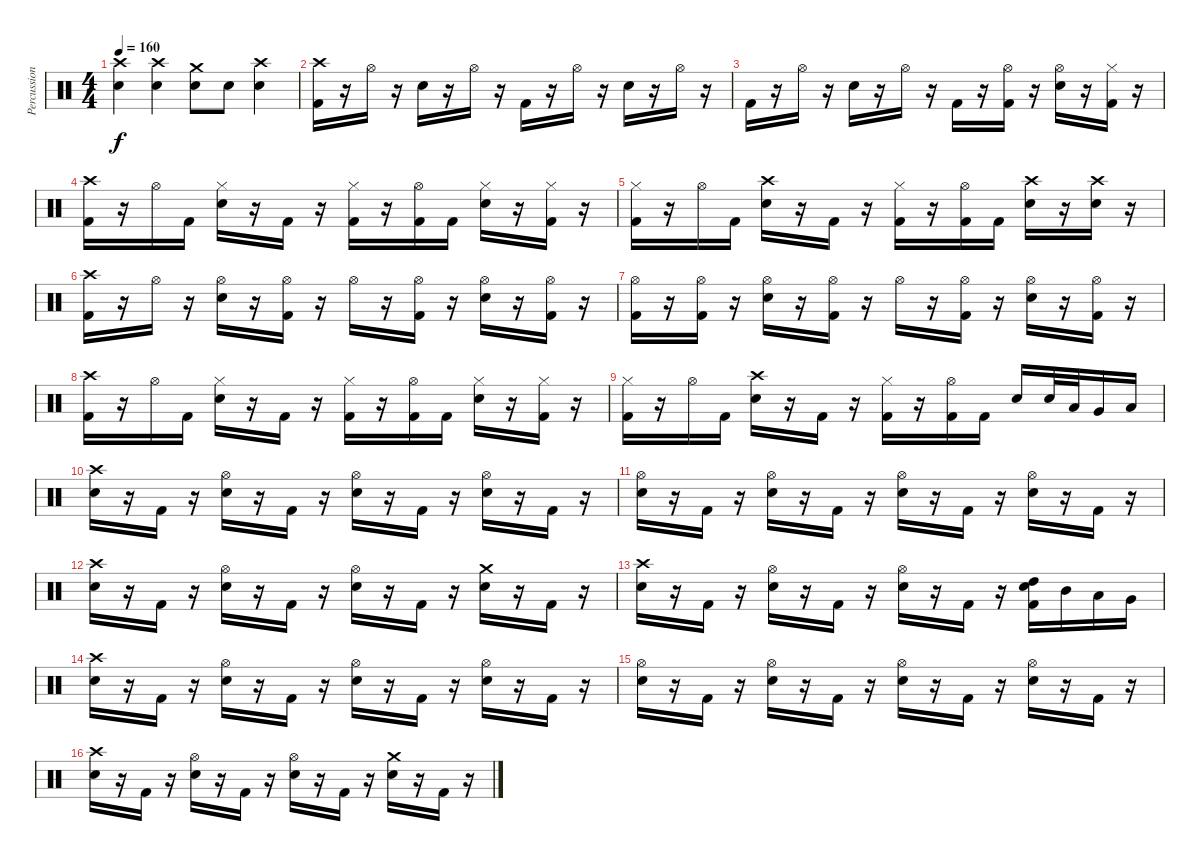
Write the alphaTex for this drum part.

\track ("Percussion" "Percussion") {instrument percussion}
\staff {score}
\articulation defaults
\ts (4 4)
\tempo 160
\clef neutral
\ks c
("Crash high (hit)" "Snare (hit) 2").4{dy f} ("Crash high (hit)" "Snare (hit) 2").4 ("Crash medium (hit)" "Snare (hit) 2").8 "Snare (hit) 2".8 ("Crash high (hit)" "Snare (hit) 2").4 |
("Crash high (hit)" "Kick (hit) 2").16 r.16 "Hi-Hat (open)".16 r.16 "Snare (hit) 2".16 r.16 "Hi-Hat (open)".16 r.16 "Kick (hit) 2".16 r.16 "Hi-Hat (open)".16 r.16 "Snare (hit) 2".16 r.16 "Hi-Hat (open)".16 r.16 |
"Kick (hit) 2".16 r.16 "Hi-Hat (open)".16 r.16 "Snare (hit) 2".16 r.16 "Hi-Hat (open)".16 r.16 "Kick (hit) 2".16 r.16 ("Hi-Hat (open)" "Kick (hit) 2").16 r.16 ("Hi-Hat (open)" "Snare (hit) 2").16 r.16 ("Hi-Hat (closed)" "Kick (hit) 2").16 r.16 |
("Crash high (hit)" "Kick (hit) 2").16 r.16 "Hi-Hat (open)".16 "Kick (hit) 2".16 ("Hi-Hat (closed)" "Snare (hit) 2").16 r.16 "Kick (hit) 2".16 r.16 ("Hi-Hat (closed)" "Kick (hit) 2").16 r.16 ("Hi-Hat (open)" "Kick (hit) 2").16 "Kick (hit) 2".16 ("Hi-Hat (closed)" "Snare (hit) 2").16 r.16 ("Hi-Hat (closed)" "Kick (hit) 2").16 r.16 |
("Hi-Hat (closed)" "Kick (hit) 2").16 r.16 "Hi-Hat (open)".16 "Kick (hit) 2".16 ("Crash high (hit)" "Snare (hit) 2").16 r.16 "Kick (hit) 2".16 r.16 ("Hi-Hat (closed)" "Kick (hit) 2").16 r.16 ("Hi-Hat (open)" "Kick (hit) 2").16 "Kick (hit) 2".16 ("Crash high (hit)" "Snare (hit) 2").16 r.16 ("Crash high (hit)" "Snare (hit) 2").16 r.16 |
("Crash high (hit)" "Kick (hit) 2").16 r.16 "Hi-Hat (open)".16 r.16 ("Hi-Hat (open)" "Snare (hit) 2").16 r.16 ("Hi-Hat (open)" "Kick (hit) 2").16 r.16 "Hi-Hat (open)".16 r.16 ("Hi-Hat (open)" "Kick (hit) 2").16 r.16 ("Hi-Hat (open)" "Snare (hit) 2").16 r.16 ("Hi-Hat (open)" "Kick (hit) 2").16 r.16 |
("Hi-Hat (open)" "Kick (hit) 2").16 r.16 ("Hi-Hat (open)" "Kick (hit) 2").16 r.16 ("Hi-Hat (open)" "Snare (hit) 2").16 r.16 ("Hi-Hat (open)" "Kick (hit) 2").16 r.16 "Hi-Hat (open)".16 r.16 ("Hi-Hat (open)" "Kick (hit) 2").16 r.16 ("Hi-Hat (open)" "Snare (hit) 2").16 r.16 ("Hi-Hat (open)" "Kick (hit) 2").16 r.16 |
("Crash high (hit)" "Kick (hit) 2").16 r.16 "Hi-Hat (open)".16 "Kick (hit) 2".16 ("Hi-Hat (closed)" "Snare (hit) 2").16 r.16 "Kick (hit) 2".16 r.16 ("Hi-Hat (closed)" "Kick (hit) 2").16 r.16 ("Hi-Hat (open)" "Kick (hit) 2").16 "Kick (hit) 2".16 ("Hi-Hat (closed)" "Snare (hit) 2").16 r.16 ("Hi-Hat (closed)" "Kick (hit) 2").16 r.16 |
("Hi-Hat (closed)" "Kick (hit) 2").16 r.16 "Hi-Hat (open)".16 "Kick (hit) 2".16 ("Crash high (hit)" "Snare (hit) 2").16 r.16 "Kick (hit) 2".16 r.16 ("Hi-Hat (closed)" "Kick (hit) 2").16 r.16 ("Hi-Hat (open)" "Kick (hit) 2").16 "Kick (hit) 2".16 "Snare (hit) 2".16 "Snare (hit) 2".32 "Low Tom (hit)".32 "Very Low Tom (hit)".16 "Low Floor Tom (hit)".16 |
("Crash high (hit)" "Snare (hit) 2").16 r.16 "Kick (hit) 2".16 r.16 ("Hi-Hat (open)" "Snare (hit) 2").16 r.16 "Kick (hit) 2".16 r.16 ("Hi-Hat (open)" "Snare (hit) 2").16 r.16 "Kick (hit) 2".16 r.16 ("Hi-Hat (open)" "Snare (hit) 2").16 r.16 "Kick (hit) 2".16 r.16 |
("Hi-Hat (open)" "Snare (hit) 2").16 r.16 "Kick (hit) 2".16 r.16 ("Hi-Hat (open)" "Snare (hit) 2").16 r.16 "Kick (hit) 2".16 r.16 ("Hi-Hat (open)" "Snare (hit) 2").16 r.16 "Kick (hit) 2".16 r.16 ("Hi-Hat (open)" "Snare (hit) 2").16 r.16 "Kick (hit) 2".16 r.16 |
("Crash high (hit)" "Snare (hit) 2").16 r.16 "Kick (hit) 2".16 r.16 ("Hi-Hat (open)" "Snare (hit) 2").16 r.16 "Kick (hit) 2".16 r.16 ("Hi-Hat (open)" "Snare (hit) 2").16 r.16 "Kick (hit) 2".16 r.16 ("Crash medium (hit)" "Snare (hit) 2").16 r.16 "Kick (hit) 2".16 r.16 |
("Crash high (hit)" "Snare (hit) 2").16 r.16 "Kick (hit) 2".16 r.16 ("Hi-Hat (open)" "Snare (hit) 2").16 r.16 "Kick (hit) 2".16 r.16 ("Hi-Hat (open)" "Snare (hit) 2").16 r.16 "Kick (hit) 2".16 r.16 ("High Tom (hit)" "Snare (hit) 2" "Kick (hit) 2").16 "Mid Tom (hit)".16 "Low Tom (hit)".16 "Very Low Tom (hit)".16 |
("Crash high (hit)" "Snare (hit) 2").16 r.16 "Kick (hit) 2".16 r.16 ("Hi-Hat (open)" "Snare (hit) 2").16 r.16 "Kick (hit) 2".16 r.16 ("Hi-Hat (open)" "Snare (hit) 2").16 r.16 "Kick (hit) 2".16 r.16 ("Hi-Hat (open)" "Snare (hit) 2").16 r.16 "Kick (hit) 2".16 r.16 |
("Hi-Hat (open)" "Snare (hit) 2").16 r.16 "Kick (hit) 2".16 r.16 ("Hi-Hat (open)" "Snare (hit) 2").16 r.16 "Kick (hit) 2".16 r.16 ("Hi-Hat (open)" "Snare (hit) 2").16 r.16 "Kick (hit) 2".16 r.16 ("Hi-Hat (open)" "Snare (hit) 2").16 r.16 "Kick (hit) 2".16 r.16 |
("Crash high (hit)" "Snare (hit) 2").16 r.16 "Kick (hit) 2".16 r.16 ("Hi-Hat (open)" "Snare (hit) 2").16 r.16 "Kick (hit) 2".16 r.16 ("Hi-Hat (open)" "Snare (hit) 2").16 r.16 "Kick (hit) 2".16 r.16 ("Crash medium (hit)" "Snare (hit) 2").16 r.16 "Kick (hit) 2".16 r.16
